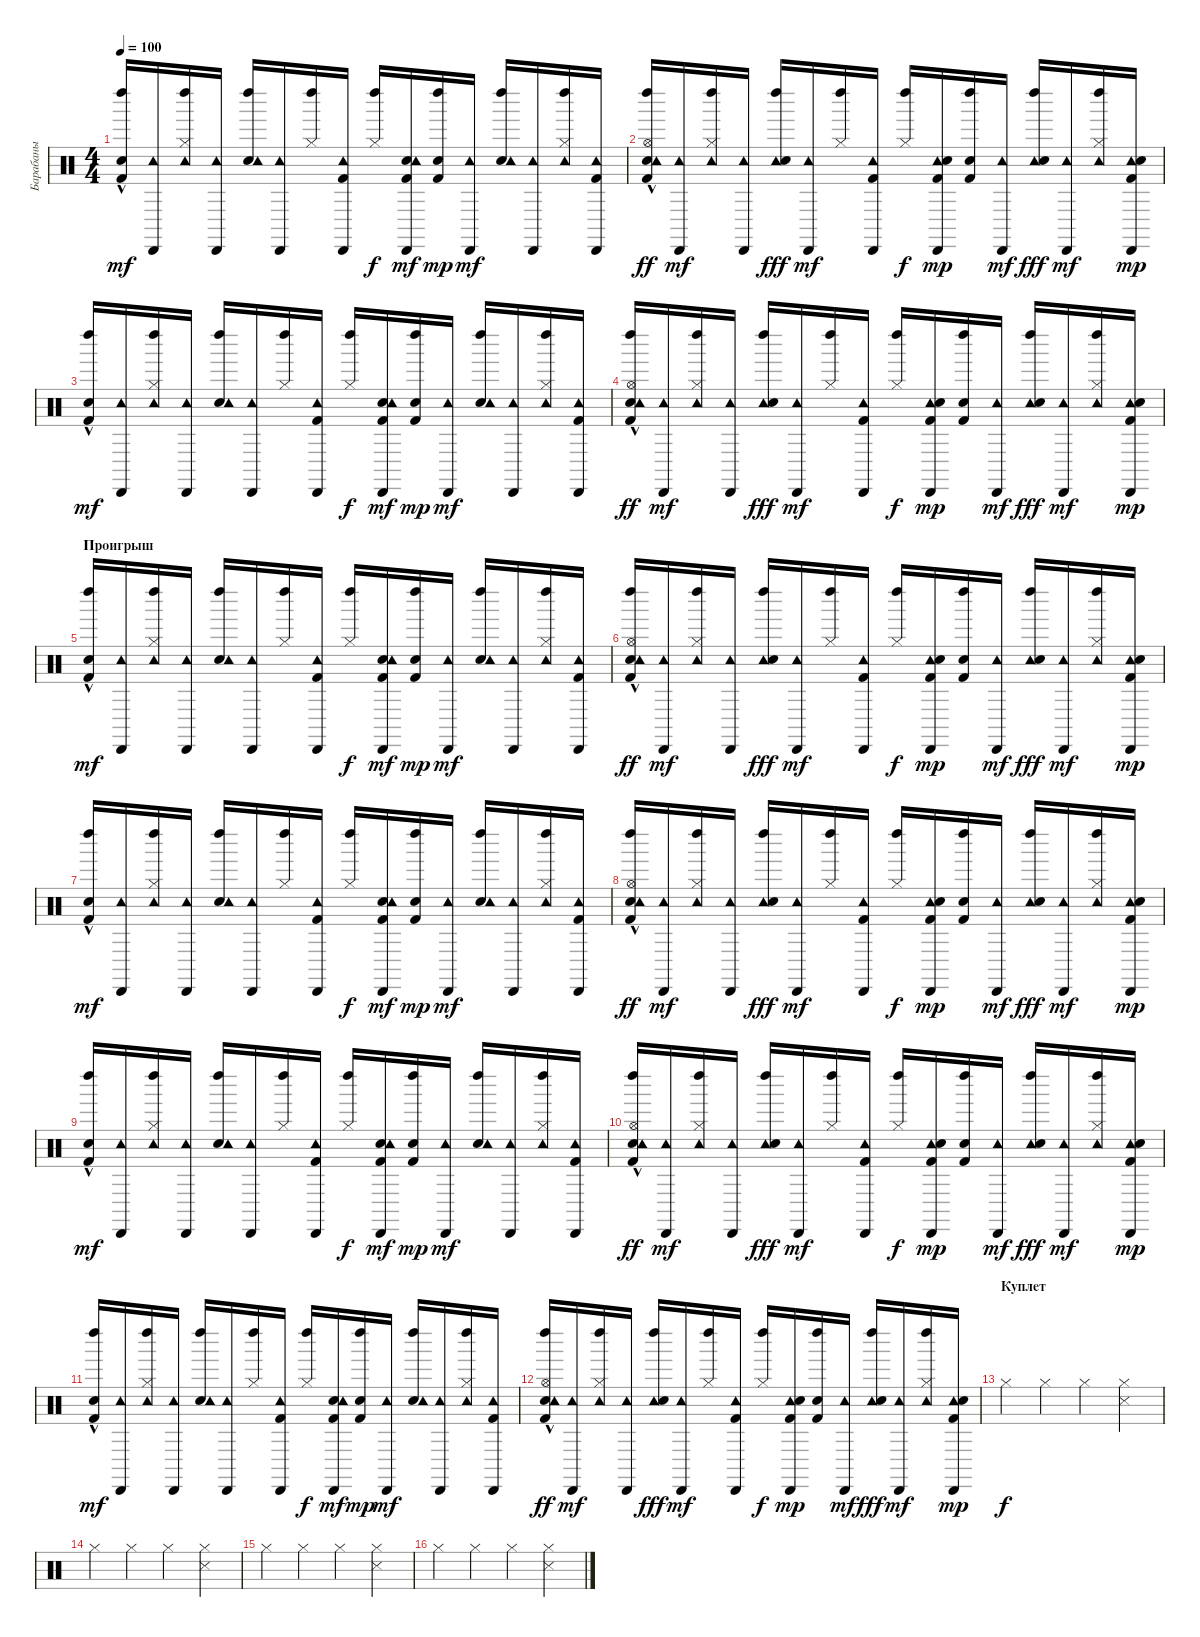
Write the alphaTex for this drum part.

\track ("Барабаны" "Барабаны") {instrument percussion}
\staff {score}
\articulation defaults
\ts (4 4)
\tempo 100
\clef neutral
\ks c
("Electric Snare (hit)"{hac} "Left Maraca (hit)" "Kick (hit) 2").16{dy mf} ("Cabasa (hit)" "Tambourine (hit)").16 ("Hi-Hat (closed)" "Left Maraca (hit)" "Tambourine (hit)").16 ("Cabasa (hit)" "Tambourine (hit)").16 ("Electric Snare (hit)" "Left Maraca (hit)" "Tambourine (hit)").16 ("Cabasa (hit)" "Tambourine (hit)").16 ("Hi-Hat (closed)" "Left Maraca (hit)").16 ("Cabasa (hit)" "Kick (hit) 2" "Tambourine (hit)").16 ("Hi-Hat (closed)" "Left Maraca (hit)").16{dy f} ("Electric Snare (hit)" "Cabasa (hit)" "Kick (hit) 2" "Tambourine (hit)").16{dy mf} ("Electric Snare (hit)" "Left Maraca (hit)" "Kick (hit) 2").16{dy mp} ("Cabasa (hit)" "Tambourine (hit)").16{dy mf} ("Electric Snare (hit)" "Left Maraca (hit)" "Tambourine (hit)").16 ("Cabasa (hit)" "Tambourine (hit)").16 ("Hi-Hat (closed)" "Left Maraca (hit)" "Tambourine (hit)").16 ("Cabasa (hit)" "Kick (hit) 2" "Tambourine (hit)").16 |
("Electric Snare (hit)"{hac} "Tambourine (hit)" "Hi-Hat (open)" "Kick (hit) 2" "Left Maraca (hit)").16{dy ff} ("Tambourine (hit)" "Cabasa (hit)").16{dy mf} ("Tambourine (hit)" "Hi-Hat (closed)" "Left Maraca (hit)").16 ("Tambourine (hit)" "Cabasa (hit)").16 ("Tambourine (hit)" "Electric Snare (hit)" "Left Maraca (hit)").16{dy fff} ("Tambourine (hit)" "Cabasa (hit)").16{dy mf} ("Hi-Hat (closed)" "Left Maraca (hit)").16 ("Tambourine (hit)" "Cabasa (hit)" "Kick (hit) 2").16 ("Hi-Hat (closed)" "Left Maraca (hit)").16{dy f} ("Tambourine (hit)" "Electric Snare (hit)" "Kick (hit) 2" "Cabasa (hit)").16{dy mp} ("Electric Snare (hit)" "Left Maraca (hit)" "Kick (hit) 2").16 ("Tambourine (hit)" "Cabasa (hit)").16{dy mf} ("Tambourine (hit)" "Electric Snare (hit)" "Left Maraca (hit)").16{dy fff} ("Tambourine (hit)" "Cabasa (hit)").16{dy mf} ("Tambourine (hit)" "Hi-Hat (closed)" "Left Maraca (hit)").16 ("Tambourine (hit)" "Electric Snare (hit)" "Kick (hit) 2" "Cabasa (hit)").16{dy mp} |
("Electric Snare (hit)"{hac} "Left Maraca (hit)" "Kick (hit) 2").16{dy mf balance 8} ("Cabasa (hit)" "Tambourine (hit)").16 ("Hi-Hat (closed)" "Left Maraca (hit)" "Tambourine (hit)").16 ("Cabasa (hit)" "Tambourine (hit)").16 ("Electric Snare (hit)" "Left Maraca (hit)" "Tambourine (hit)").16 ("Cabasa (hit)" "Tambourine (hit)").16 ("Hi-Hat (closed)" "Left Maraca (hit)").16 ("Cabasa (hit)" "Kick (hit) 2" "Tambourine (hit)").16 ("Hi-Hat (closed)" "Left Maraca (hit)").16{dy f} ("Electric Snare (hit)" "Cabasa (hit)" "Kick (hit) 2" "Tambourine (hit)").16{dy mf} ("Electric Snare (hit)" "Left Maraca (hit)" "Kick (hit) 2").16{dy mp} ("Cabasa (hit)" "Tambourine (hit)").16{dy mf} ("Electric Snare (hit)" "Left Maraca (hit)" "Tambourine (hit)").16 ("Cabasa (hit)" "Tambourine (hit)").16 ("Hi-Hat (closed)" "Left Maraca (hit)" "Tambourine (hit)").16 ("Cabasa (hit)" "Kick (hit) 2" "Tambourine (hit)").16 |
("Electric Snare (hit)"{hac} "Tambourine (hit)" "Hi-Hat (open)" "Kick (hit) 2" "Left Maraca (hit)").16{dy ff} ("Tambourine (hit)" "Cabasa (hit)").16{dy mf} ("Tambourine (hit)" "Hi-Hat (closed)" "Left Maraca (hit)").16 ("Tambourine (hit)" "Cabasa (hit)").16 ("Tambourine (hit)" "Electric Snare (hit)" "Left Maraca (hit)").16{dy fff} ("Tambourine (hit)" "Cabasa (hit)").16{dy mf} ("Hi-Hat (closed)" "Left Maraca (hit)").16 ("Tambourine (hit)" "Cabasa (hit)" "Kick (hit) 2").16 ("Hi-Hat (closed)" "Left Maraca (hit)").16{dy f} ("Tambourine (hit)" "Electric Snare (hit)" "Kick (hit) 2" "Cabasa (hit)").16{dy mp} ("Electric Snare (hit)" "Left Maraca (hit)" "Kick (hit) 2").16 ("Tambourine (hit)" "Cabasa (hit)").16{dy mf} ("Tambourine (hit)" "Electric Snare (hit)" "Left Maraca (hit)").16{dy fff} ("Tambourine (hit)" "Cabasa (hit)").16{dy mf} ("Tambourine (hit)" "Hi-Hat (closed)" "Left Maraca (hit)").16 ("Tambourine (hit)" "Electric Snare (hit)" "Kick (hit) 2" "Cabasa (hit)").16{dy mp} |
\section ("" "Проигрыш")
("Electric Snare (hit)"{hac} "Left Maraca (hit)" "Kick (hit) 2").16{dy mf balance 8} ("Cabasa (hit)" "Tambourine (hit)").16 ("Hi-Hat (closed)" "Left Maraca (hit)" "Tambourine (hit)").16 ("Cabasa (hit)" "Tambourine (hit)").16 ("Electric Snare (hit)" "Left Maraca (hit)" "Tambourine (hit)").16 ("Cabasa (hit)" "Tambourine (hit)").16 ("Hi-Hat (closed)" "Left Maraca (hit)").16 ("Cabasa (hit)" "Kick (hit) 2" "Tambourine (hit)").16 ("Hi-Hat (closed)" "Left Maraca (hit)").16{dy f} ("Electric Snare (hit)" "Cabasa (hit)" "Kick (hit) 2" "Tambourine (hit)").16{dy mf} ("Electric Snare (hit)" "Left Maraca (hit)" "Kick (hit) 2").16{dy mp} ("Cabasa (hit)" "Tambourine (hit)").16{dy mf} ("Electric Snare (hit)" "Left Maraca (hit)" "Tambourine (hit)").16 ("Cabasa (hit)" "Tambourine (hit)").16 ("Hi-Hat (closed)" "Left Maraca (hit)" "Tambourine (hit)").16 ("Cabasa (hit)" "Kick (hit) 2" "Tambourine (hit)").16 |
("Electric Snare (hit)"{hac} "Tambourine (hit)" "Hi-Hat (open)" "Kick (hit) 2" "Left Maraca (hit)").16{dy ff} ("Tambourine (hit)" "Cabasa (hit)").16{dy mf} ("Tambourine (hit)" "Hi-Hat (closed)" "Left Maraca (hit)").16 ("Tambourine (hit)" "Cabasa (hit)").16 ("Tambourine (hit)" "Electric Snare (hit)" "Left Maraca (hit)").16{dy fff} ("Tambourine (hit)" "Cabasa (hit)").16{dy mf} ("Hi-Hat (closed)" "Left Maraca (hit)").16 ("Tambourine (hit)" "Cabasa (hit)" "Kick (hit) 2").16 ("Hi-Hat (closed)" "Left Maraca (hit)").16{dy f} ("Tambourine (hit)" "Electric Snare (hit)" "Kick (hit) 2" "Cabasa (hit)").16{dy mp} ("Electric Snare (hit)" "Left Maraca (hit)" "Kick (hit) 2").16 ("Tambourine (hit)" "Cabasa (hit)").16{dy mf} ("Tambourine (hit)" "Electric Snare (hit)" "Left Maraca (hit)").16{dy fff} ("Tambourine (hit)" "Cabasa (hit)").16{dy mf} ("Tambourine (hit)" "Hi-Hat (closed)" "Left Maraca (hit)").16 ("Tambourine (hit)" "Electric Snare (hit)" "Kick (hit) 2" "Cabasa (hit)").16{dy mp} |
("Electric Snare (hit)"{hac} "Left Maraca (hit)" "Kick (hit) 2").16{dy mf balance 8} ("Cabasa (hit)" "Tambourine (hit)").16 ("Hi-Hat (closed)" "Left Maraca (hit)" "Tambourine (hit)").16 ("Cabasa (hit)" "Tambourine (hit)").16 ("Electric Snare (hit)" "Left Maraca (hit)" "Tambourine (hit)").16 ("Cabasa (hit)" "Tambourine (hit)").16 ("Hi-Hat (closed)" "Left Maraca (hit)").16 ("Cabasa (hit)" "Kick (hit) 2" "Tambourine (hit)").16 ("Hi-Hat (closed)" "Left Maraca (hit)").16{dy f} ("Electric Snare (hit)" "Cabasa (hit)" "Kick (hit) 2" "Tambourine (hit)").16{dy mf} ("Electric Snare (hit)" "Left Maraca (hit)" "Kick (hit) 2").16{dy mp} ("Cabasa (hit)" "Tambourine (hit)").16{dy mf} ("Electric Snare (hit)" "Left Maraca (hit)" "Tambourine (hit)").16 ("Cabasa (hit)" "Tambourine (hit)").16 ("Hi-Hat (closed)" "Left Maraca (hit)" "Tambourine (hit)").16 ("Cabasa (hit)" "Kick (hit) 2" "Tambourine (hit)").16 |
("Electric Snare (hit)"{hac} "Tambourine (hit)" "Hi-Hat (open)" "Kick (hit) 2" "Left Maraca (hit)").16{dy ff} ("Tambourine (hit)" "Cabasa (hit)").16{dy mf} ("Tambourine (hit)" "Hi-Hat (closed)" "Left Maraca (hit)").16 ("Tambourine (hit)" "Cabasa (hit)").16 ("Tambourine (hit)" "Electric Snare (hit)" "Left Maraca (hit)").16{dy fff} ("Tambourine (hit)" "Cabasa (hit)").16{dy mf} ("Hi-Hat (closed)" "Left Maraca (hit)").16 ("Tambourine (hit)" "Cabasa (hit)" "Kick (hit) 2").16 ("Hi-Hat (closed)" "Left Maraca (hit)").16{dy f} ("Tambourine (hit)" "Electric Snare (hit)" "Kick (hit) 2" "Cabasa (hit)").16{dy mp} ("Electric Snare (hit)" "Left Maraca (hit)" "Kick (hit) 2").16 ("Tambourine (hit)" "Cabasa (hit)").16{dy mf} ("Tambourine (hit)" "Electric Snare (hit)" "Left Maraca (hit)").16{dy fff} ("Tambourine (hit)" "Cabasa (hit)").16{dy mf} ("Tambourine (hit)" "Hi-Hat (closed)" "Left Maraca (hit)").16 ("Tambourine (hit)" "Electric Snare (hit)" "Kick (hit) 2" "Cabasa (hit)").16{dy mp} |
("Electric Snare (hit)"{hac} "Left Maraca (hit)" "Kick (hit) 2").16{dy mf balance 8} ("Cabasa (hit)" "Tambourine (hit)").16 ("Hi-Hat (closed)" "Left Maraca (hit)" "Tambourine (hit)").16 ("Cabasa (hit)" "Tambourine (hit)").16 ("Electric Snare (hit)" "Left Maraca (hit)" "Tambourine (hit)").16 ("Cabasa (hit)" "Tambourine (hit)").16 ("Hi-Hat (closed)" "Left Maraca (hit)").16 ("Cabasa (hit)" "Kick (hit) 2" "Tambourine (hit)").16 ("Hi-Hat (closed)" "Left Maraca (hit)").16{dy f} ("Electric Snare (hit)" "Cabasa (hit)" "Kick (hit) 2" "Tambourine (hit)").16{dy mf} ("Electric Snare (hit)" "Left Maraca (hit)" "Kick (hit) 2").16{dy mp} ("Cabasa (hit)" "Tambourine (hit)").16{dy mf} ("Electric Snare (hit)" "Left Maraca (hit)" "Tambourine (hit)").16 ("Cabasa (hit)" "Tambourine (hit)").16 ("Hi-Hat (closed)" "Left Maraca (hit)" "Tambourine (hit)").16 ("Cabasa (hit)" "Kick (hit) 2" "Tambourine (hit)").16 |
("Electric Snare (hit)"{hac} "Tambourine (hit)" "Hi-Hat (open)" "Kick (hit) 2" "Left Maraca (hit)").16{dy ff} ("Tambourine (hit)" "Cabasa (hit)").16{dy mf} ("Tambourine (hit)" "Hi-Hat (closed)" "Left Maraca (hit)").16 ("Tambourine (hit)" "Cabasa (hit)").16 ("Tambourine (hit)" "Electric Snare (hit)" "Left Maraca (hit)").16{dy fff} ("Tambourine (hit)" "Cabasa (hit)").16{dy mf} ("Hi-Hat (closed)" "Left Maraca (hit)").16 ("Tambourine (hit)" "Cabasa (hit)" "Kick (hit) 2").16 ("Hi-Hat (closed)" "Left Maraca (hit)").16{dy f} ("Tambourine (hit)" "Electric Snare (hit)" "Kick (hit) 2" "Cabasa (hit)").16{dy mp} ("Electric Snare (hit)" "Left Maraca (hit)" "Kick (hit) 2").16 ("Tambourine (hit)" "Cabasa (hit)").16{dy mf} ("Tambourine (hit)" "Electric Snare (hit)" "Left Maraca (hit)").16{dy fff} ("Tambourine (hit)" "Cabasa (hit)").16{dy mf} ("Tambourine (hit)" "Hi-Hat (closed)" "Left Maraca (hit)").16 ("Tambourine (hit)" "Electric Snare (hit)" "Kick (hit) 2" "Cabasa (hit)").16{dy mp} |
("Electric Snare (hit)"{hac} "Left Maraca (hit)" "Kick (hit) 2").16{dy mf balance 8} ("Cabasa (hit)" "Tambourine (hit)").16 ("Hi-Hat (closed)" "Left Maraca (hit)" "Tambourine (hit)").16 ("Cabasa (hit)" "Tambourine (hit)").16 ("Electric Snare (hit)" "Left Maraca (hit)" "Tambourine (hit)").16 ("Cabasa (hit)" "Tambourine (hit)").16 ("Hi-Hat (closed)" "Left Maraca (hit)").16 ("Cabasa (hit)" "Kick (hit) 2" "Tambourine (hit)").16 ("Hi-Hat (closed)" "Left Maraca (hit)").16{dy f} ("Electric Snare (hit)" "Cabasa (hit)" "Kick (hit) 2" "Tambourine (hit)").16{dy mf} ("Electric Snare (hit)" "Left Maraca (hit)" "Kick (hit) 2").16{dy mp} ("Cabasa (hit)" "Tambourine (hit)").16{dy mf} ("Electric Snare (hit)" "Left Maraca (hit)" "Tambourine (hit)").16 ("Cabasa (hit)" "Tambourine (hit)").16 ("Hi-Hat (closed)" "Left Maraca (hit)" "Tambourine (hit)").16 ("Cabasa (hit)" "Kick (hit) 2" "Tambourine (hit)").16 |
("Electric Snare (hit)"{hac} "Tambourine (hit)" "Hi-Hat (open)" "Kick (hit) 2" "Left Maraca (hit)").16{dy ff} ("Tambourine (hit)" "Cabasa (hit)").16{dy mf} ("Tambourine (hit)" "Hi-Hat (closed)" "Left Maraca (hit)").16 ("Tambourine (hit)" "Cabasa (hit)").16 ("Tambourine (hit)" "Electric Snare (hit)" "Left Maraca (hit)").16{dy fff} ("Tambourine (hit)" "Cabasa (hit)").16{dy mf} ("Hi-Hat (closed)" "Left Maraca (hit)").16 ("Tambourine (hit)" "Cabasa (hit)" "Kick (hit) 2").16 ("Hi-Hat (closed)" "Left Maraca (hit)").16{dy f} ("Tambourine (hit)" "Electric Snare (hit)" "Kick (hit) 2" "Cabasa (hit)").16{dy mp} ("Electric Snare (hit)" "Left Maraca (hit)" "Kick (hit) 2").16 ("Tambourine (hit)" "Cabasa (hit)").16{dy mf} ("Tambourine (hit)" "Electric Snare (hit)" "Left Maraca (hit)").16{dy fff} ("Tambourine (hit)" "Cabasa (hit)").16{dy mf} ("Tambourine (hit)" "Hi-Hat (closed)" "Left Maraca (hit)").16 ("Tambourine (hit)" "Electric Snare (hit)" "Kick (hit) 2" "Cabasa (hit)").16{dy mp} |
\section ("" "Куплет")
"Hi-Hat (closed)".4{dy f} "Hi-Hat (closed)".4 "Hi-Hat (closed)".4 ("Snare (side stick) 3" "Hi-Hat (closed)").4 |
"Hi-Hat (closed)".4 "Hi-Hat (closed)".4 "Hi-Hat (closed)".4 ("Snare (side stick) 3" "Hi-Hat (closed)").4 |
"Hi-Hat (closed)".4 "Hi-Hat (closed)".4 "Hi-Hat (closed)".4 ("Snare (side stick) 3" "Hi-Hat (closed)").4 |
"Hi-Hat (closed)".4 "Hi-Hat (closed)".4 "Hi-Hat (closed)".4 ("Snare (side stick) 3" "Hi-Hat (closed)").4
